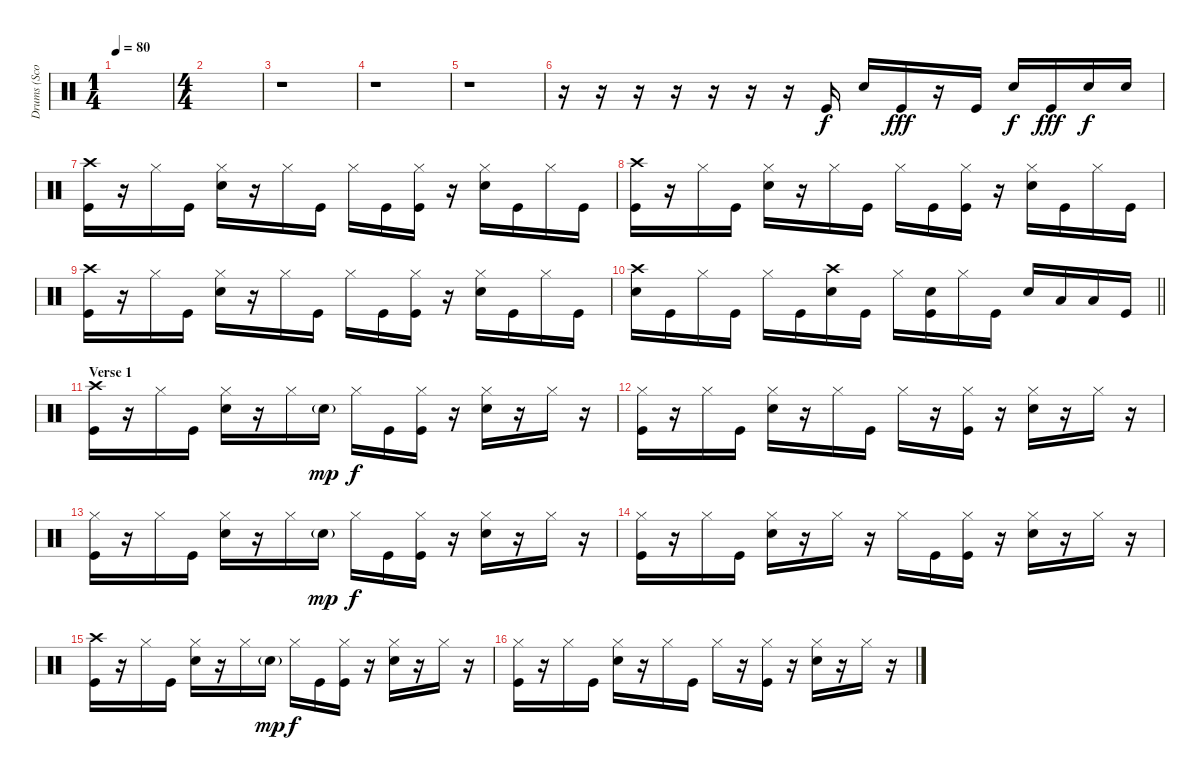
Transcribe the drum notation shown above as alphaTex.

\track ("Drums (Scott Phillips)" "Drums (Sco") {instrument percussion}
\staff {score}
\articulation defaults
\ts (1 4)
\tempo 80
\clef neutral
\ks c
|
\ts (4 4)
|
r.1 |
r.1 |
r.1 |
r.16 r.16 r.16 r.16 r.16 r.16 r.16 "Kick (hit)".16 "Snare (hit) 2".16{dy f} "Kick (hit)".16{dy fff} r.16 "Kick (hit)".16 "Snare (hit) 2".16{dy f} "Kick (hit)".16{dy fff} "Snare (hit) 2".16{dy f} "Snare (hit) 2".16 |
("Crash high (hit)" "Kick (hit)").16 r.16 "Hi-Hat (closed)".16 "Kick (hit)".16 ("Hi-Hat (closed)" "Snare (hit) 2").16 r.16 "Hi-Hat (closed)".16 "Kick (hit)".16 "Hi-Hat (closed)".16 "Kick (hit)".16 ("Hi-Hat (closed)" "Kick (hit)").16 r.16 ("Hi-Hat (closed)" "Snare (hit) 2").16 "Kick (hit)".16 "Hi-Hat (closed)".16 "Kick (hit)".16 |
("Crash high (hit)" "Kick (hit)").16 r.16 "Hi-Hat (closed)".16 "Kick (hit)".16 ("Hi-Hat (closed)" "Snare (hit) 2").16 r.16 "Hi-Hat (closed)".16 "Kick (hit)".16 "Hi-Hat (closed)".16 "Kick (hit)".16 ("Hi-Hat (closed)" "Kick (hit)").16 r.16 ("Hi-Hat (closed)" "Snare (hit) 2").16 "Kick (hit)".16 "Hi-Hat (closed)".16 "Kick (hit)".16 |
("Crash high (hit)" "Kick (hit)").16 r.16 "Hi-Hat (closed)".16 "Kick (hit)".16 ("Hi-Hat (closed)" "Snare (hit) 2").16 r.16 "Hi-Hat (closed)".16 "Kick (hit)".16 "Hi-Hat (closed)".16 "Kick (hit)".16 ("Hi-Hat (closed)" "Kick (hit)").16 r.16 ("Hi-Hat (closed)" "Snare (hit) 2").16 "Kick (hit)".16 "Hi-Hat (closed)".16 "Kick (hit)".16 |
\barLineRight lightlight
("Crash high (hit)" "Snare (hit) 2").16 "Kick (hit)".16 "Hi-Hat (closed)".16 "Kick (hit)".16 "Hi-Hat (closed)".16 "Kick (hit)".16 ("Crash high (hit)" "Snare (hit) 2").16 "Kick (hit)".16 "Hi-Hat (closed)".16 ("Snare (hit) 2" "Kick (hit)").16 "Hi-Hat (closed)".16 "Kick (hit)".16 "Snare (hit) 2".16 "Low Tom (hit)".16 "Low Tom (hit)".16 "Kick (hit)".16 |
\section ("" "Verse 1")
("Crash high (hit)" "Kick (hit)").16 r.16 "Hi-Hat (closed)".16 "Kick (hit)".16 ("Hi-Hat (closed)" "Snare (hit) 2").16 r.16 "Hi-Hat (closed)".16 "Snare (hit) 2"{g}.16{dy mp} "Hi-Hat (closed)".16{dy f} "Kick (hit)".16 ("Hi-Hat (closed)" "Kick (hit)").16 r.16 ("Hi-Hat (closed)" "Snare (hit) 2").16 r.16 "Hi-Hat (closed)".16 r.16 |
("Hi-Hat (closed)" "Kick (hit)").16 r.16 "Hi-Hat (closed)".16 "Kick (hit)".16 ("Hi-Hat (closed)" "Snare (hit) 2").16 r.16 "Hi-Hat (closed)".16 "Kick (hit)".16 "Hi-Hat (closed)".16 r.16 ("Hi-Hat (closed)" "Kick (hit)").16 r.16 ("Hi-Hat (closed)" "Snare (hit) 2").16 r.16 "Hi-Hat (closed)".16 r.16 |
("Hi-Hat (closed)" "Kick (hit)").16 r.16 "Hi-Hat (closed)".16 "Kick (hit)".16 ("Hi-Hat (closed)" "Snare (hit) 2").16 r.16 "Hi-Hat (closed)".16 "Snare (hit) 2"{g}.16{dy mp} "Hi-Hat (closed)".16{dy f} "Kick (hit)".16 ("Hi-Hat (closed)" "Kick (hit)").16 r.16 ("Hi-Hat (closed)" "Snare (hit) 2").16 r.16 "Hi-Hat (closed)".16 r.16 |
("Hi-Hat (closed)" "Kick (hit)").16 r.16 "Hi-Hat (closed)".16 "Kick (hit)".16 ("Hi-Hat (closed)" "Snare (hit) 2").16 r.16 "Hi-Hat (closed)".16 r.16 "Hi-Hat (closed)".16 "Kick (hit)".16 ("Hi-Hat (closed)" "Kick (hit)").16 r.16 ("Hi-Hat (closed)" "Snare (hit) 2").16 r.16 "Hi-Hat (closed)".16 r.16 |
("Crash high (hit)" "Kick (hit)").16 r.16 "Hi-Hat (closed)".16 "Kick (hit)".16 ("Hi-Hat (closed)" "Snare (hit) 2").16 r.16 "Hi-Hat (closed)".16 "Snare (hit) 2"{g}.16{dy mp} "Hi-Hat (closed)".16{dy f} "Kick (hit)".16 ("Hi-Hat (closed)" "Kick (hit)").16 r.16 ("Hi-Hat (closed)" "Snare (hit) 2").16 r.16 "Hi-Hat (closed)".16 r.16 |
("Hi-Hat (closed)" "Kick (hit)").16 r.16 "Hi-Hat (closed)".16 "Kick (hit)".16 ("Hi-Hat (closed)" "Snare (hit) 2").16 r.16 "Hi-Hat (closed)".16 "Kick (hit)".16 "Hi-Hat (closed)".16 r.16 ("Hi-Hat (closed)" "Kick (hit)").16 r.16 ("Hi-Hat (closed)" "Snare (hit) 2").16 r.16 "Hi-Hat (closed)".16 r.16
